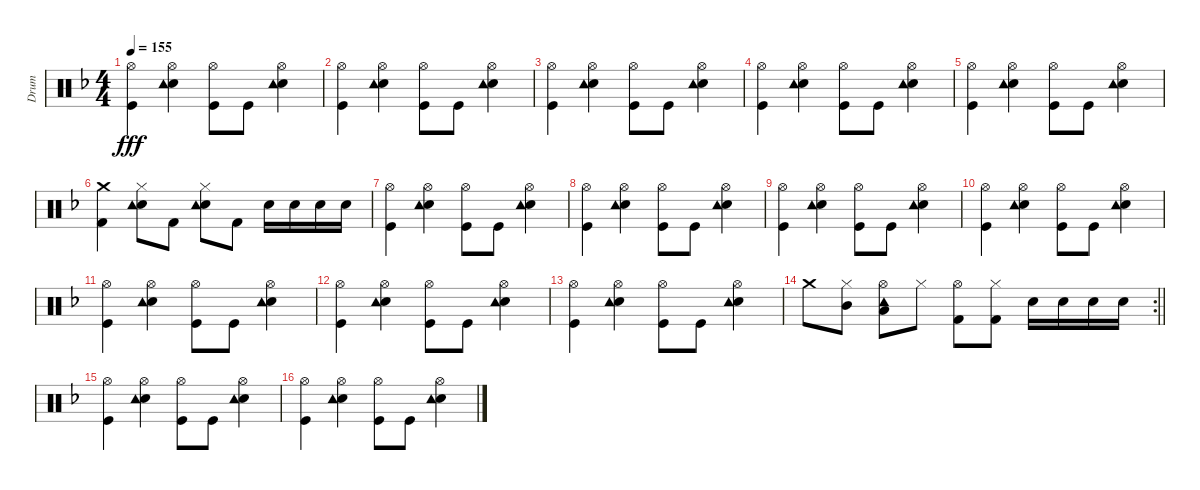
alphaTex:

\track ("Drum" "Drum") {instrument percussion}
\staff {score}
\articulation defaults
\ts (4 4)
\tempo 155
\clef neutral
\ks f
("Hi-Hat (open)" "Kick (hit)").4{dy fff} ("Hi-Hat (open)" "Electric Snare (hit)" "Tambourine (hit)").4 ("Hi-Hat (open)" "Kick (hit)").8 "Kick (hit)".8 ("Hi-Hat (open)" "Electric Snare (hit)" "Tambourine (hit)").4 |
("Hi-Hat (open)" "Kick (hit)").4 ("Hi-Hat (open)" "Electric Snare (hit)" "Tambourine (hit)").4 ("Hi-Hat (open)" "Kick (hit)").8 "Kick (hit)".8 ("Hi-Hat (open)" "Electric Snare (hit)" "Tambourine (hit)").4 |
("Hi-Hat (open)" "Kick (hit)").4 ("Hi-Hat (open)" "Electric Snare (hit)" "Tambourine (hit)").4 ("Hi-Hat (open)" "Kick (hit)").8 "Kick (hit)".8 ("Hi-Hat (open)" "Electric Snare (hit)" "Tambourine (hit)").4 |
("Hi-Hat (open)" "Kick (hit)").4 ("Hi-Hat (open)" "Electric Snare (hit)" "Tambourine (hit)").4 ("Hi-Hat (open)" "Kick (hit)").8 "Kick (hit)".8 ("Hi-Hat (open)" "Electric Snare (hit)" "Tambourine (hit)").4 |
("Hi-Hat (open)" "Kick (hit)").4 ("Hi-Hat (open)" "Electric Snare (hit)" "Tambourine (hit)").4 ("Hi-Hat (open)" "Kick (hit)").8 "Kick (hit)".8 ("Hi-Hat (open)" "Electric Snare (hit)" "Tambourine (hit)").4 |
("Crash medium (hit)" "Kick (hit) 2").4 ("Hi-Hat (closed)" "Electric Snare (hit)" "Tambourine (hit)").8 "Kick (hit) 2".8 ("Hi-Hat (closed)" "Electric Snare (hit)" "Tambourine (hit)").8 "Kick (hit) 2".8 "Electric Snare (hit)".16 "Electric Snare (hit)".16 "Electric Snare (hit)".16 "Electric Snare (hit)".16 |
("Hi-Hat (open)" "Kick (hit)").4 ("Hi-Hat (open)" "Electric Snare (hit)" "Tambourine (hit)").4 ("Hi-Hat (open)" "Kick (hit)").8 "Kick (hit)".8 ("Hi-Hat (open)" "Electric Snare (hit)" "Tambourine (hit)").4 |
("Hi-Hat (open)" "Kick (hit)").4 ("Hi-Hat (open)" "Electric Snare (hit)" "Tambourine (hit)").4 ("Hi-Hat (open)" "Kick (hit)").8 "Kick (hit)".8 ("Hi-Hat (open)" "Electric Snare (hit)" "Tambourine (hit)").4 |
("Hi-Hat (open)" "Kick (hit)").4 ("Hi-Hat (open)" "Electric Snare (hit)" "Tambourine (hit)").4 ("Hi-Hat (open)" "Kick (hit)").8 "Kick (hit)".8 ("Hi-Hat (open)" "Electric Snare (hit)" "Tambourine (hit)").4 |
("Hi-Hat (open)" "Kick (hit)").4 ("Hi-Hat (open)" "Electric Snare (hit)" "Tambourine (hit)").4 ("Hi-Hat (open)" "Kick (hit)").8 "Kick (hit)".8 ("Hi-Hat (open)" "Electric Snare (hit)" "Tambourine (hit)").4 |
("Hi-Hat (open)" "Kick (hit)").4 ("Hi-Hat (open)" "Electric Snare (hit)" "Tambourine (hit)").4 ("Hi-Hat (open)" "Kick (hit)").8 "Kick (hit)".8 ("Hi-Hat (open)" "Electric Snare (hit)" "Tambourine (hit)").4 |
("Hi-Hat (open)" "Kick (hit)").4 ("Hi-Hat (open)" "Electric Snare (hit)" "Tambourine (hit)").4 ("Hi-Hat (open)" "Kick (hit)").8 "Kick (hit)".8 ("Hi-Hat (open)" "Electric Snare (hit)" "Tambourine (hit)").4 |
("Hi-Hat (open)" "Kick (hit)").4 ("Hi-Hat (open)" "Electric Snare (hit)" "Tambourine (hit)").4 ("Hi-Hat (open)" "Kick (hit)").8 "Kick (hit)".8 ("Hi-Hat (open)" "Electric Snare (hit)" "Tambourine (hit)").4 |
\rc 2
\barLineRight lightlight "Crash medium (hit)".8
("Hi-Hat (closed)" "Mid Tom (hit)").8 ("Hi-Hat (open)" "Low Tom (hit)" "Tambourine (hit)").8 "Hi-Hat (closed)".8 ("Hi-Hat (open)" "Kick (hit) 2").8 ("Hi-Hat (closed)" "Kick (hit) 2").8 "Electric Snare (hit)".16 "Electric Snare (hit)".16 "Electric Snare (hit)".16 "Electric Snare (hit)".16 |
("Hi-Hat (open)" "Kick (hit)").4 ("Hi-Hat (open)" "Electric Snare (hit)" "Tambourine (hit)").4 ("Hi-Hat (open)" "Kick (hit)").8 "Kick (hit)".8 ("Hi-Hat (open)" "Electric Snare (hit)" "Tambourine (hit)").4 |
("Hi-Hat (open)" "Kick (hit)").4 ("Hi-Hat (open)" "Electric Snare (hit)" "Tambourine (hit)").4 ("Hi-Hat (open)" "Kick (hit)").8 "Kick (hit)".8 ("Hi-Hat (open)" "Electric Snare (hit)" "Tambourine (hit)").4
